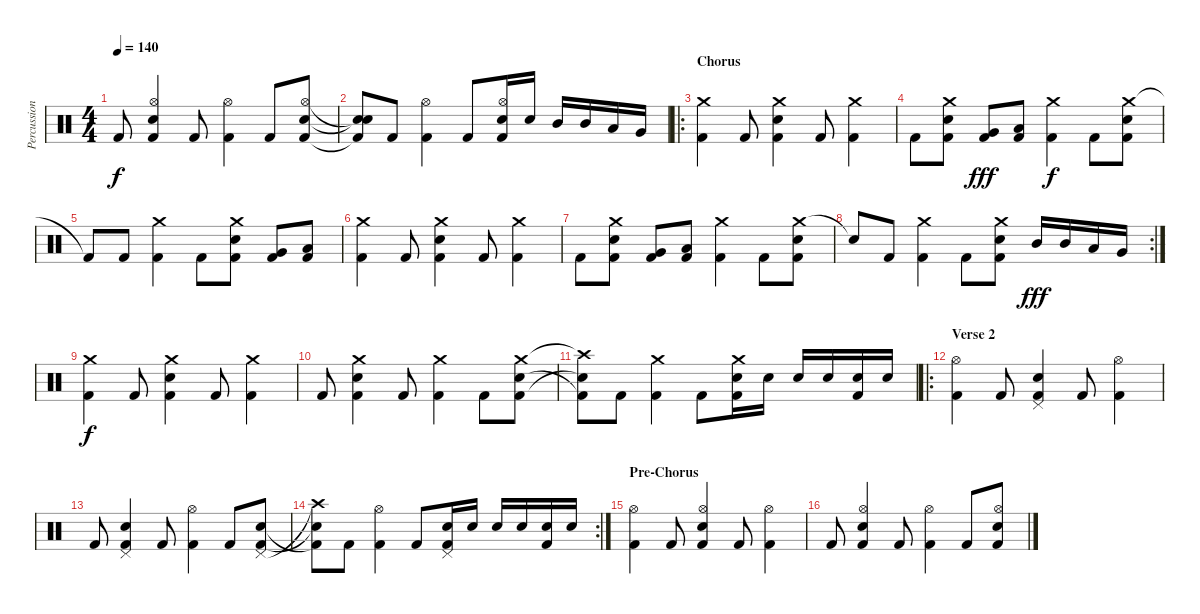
\track ("Percussion" "Percussion") {instrument percussion}
\staff {score}
\articulation defaults
\ts (4 4)
\tempo 140
\clef neutral
\ks c "Kick (hit) 2".8{dy f}
("Hi-Hat (open)" "Electric Snare (hit)" "Kick (hit) 2").4 "Kick (hit) 2".8 ("Hi-Hat (open)" "Kick (hit) 2").4 "Kick (hit) 2".8 ("Electric Snare (hit)" "Hi-Hat (open)" "Kick (hit) 2").8 |
("Snare (hit)"{t} "Snare (hit)"{t} "Kick (hit) 2"{t}).8 "Kick (hit) 2".8 ("Hi-Hat (open)" "Kick (hit) 2").4 "Kick (hit) 2".8 ("Hi-Hat (open)" "Electric Snare (hit)" "Kick (hit) 2").16 "Electric Snare (hit)".16 "Mid Tom (hit)".16 "Mid Tom (hit)".16 "Low Tom (hit)".16 "Very Low Tom (hit)".16 |
\ro
\section ("" "Chorus")
("Crash medium (hit)" "Kick (hit) 2").4 "Kick (hit) 2".8 ("Crash medium (hit)" "Electric Snare (hit)" "Kick (hit) 2").4 "Kick (hit) 2".8 ("Crash medium (hit)" "Kick (hit) 2").4 |
"Kick (hit) 2".8 ("Crash medium (hit)" "Electric Snare (hit)" "Kick (hit) 2").8 ("Very Low Tom (hit)" "Kick (hit) 2").8{dy fff} ("Low Floor Tom (hit)" "Kick (hit) 2").8 ("Crash medium (hit)" "Kick (hit) 2").4{dy f} "Kick (hit) 2".8 ("Crash medium (hit)" "Electric Snare (hit)" "Kick (hit) 2").8 |
"Kick (hit) 2"{t}.8 "Kick (hit) 2".8 ("Crash medium (hit)" "Kick (hit) 2").4 "Kick (hit) 2".8 ("Crash medium (hit)" "Electric Snare (hit)" "Kick (hit) 2").8 ("Very Low Tom (hit)" "Kick (hit) 2").8 ("Low Floor Tom (hit)" "Kick (hit) 2").8 |
("Crash medium (hit)" "Kick (hit) 2").4 "Kick (hit) 2".8 ("Crash medium (hit)" "Electric Snare (hit)" "Kick (hit) 2").4 "Kick (hit) 2".8 ("Crash medium (hit)" "Kick (hit) 2").4 |
"Kick (hit) 2".8 ("Crash medium (hit)" "Electric Snare (hit)" "Kick (hit) 2").8 ("Very Low Tom (hit)" "Kick (hit) 2").8 ("Low Floor Tom (hit)" "Kick (hit) 2").8 ("Crash medium (hit)" "Kick (hit) 2").4 "Kick (hit) 2".8 ("Crash medium (hit)" "Electric Snare (hit)" "Kick (hit) 2").8 |
\rc 2 "Snare (hit)"{t}.8 "Kick (hit) 2".8
("Crash medium (hit)" "Kick (hit) 2").4 "Kick (hit) 2".8 ("Crash medium (hit)" "Electric Snare (hit)" "Kick (hit) 2").8 "Mid Tom (hit)".16{dy fff} "Mid Tom (hit)".16 "Low Tom (hit)".16 "Very Low Tom (hit)".16 |
("Crash medium (hit)" "Kick (hit) 2").4{dy f} "Kick (hit) 2".8 ("Crash medium (hit)" "Electric Snare (hit)" "Kick (hit) 2").4 "Kick (hit) 2".8 ("Crash medium (hit)" "Kick (hit) 2").4 |
"Kick (hit) 2".8 ("Electric Snare (hit)" "Crash medium (hit)" "Kick (hit) 2").4 "Kick (hit) 2".8 ("Crash medium (hit)" "Kick (hit) 2").4 "Kick (hit) 2".8 ("Crash medium (hit)" "Electric Snare (hit)" "Kick (hit) 2").8 |
("Crash high (hit)"{t} "Kick (hit) 2"{t} "Snare (hit)"{t}).8 "Kick (hit) 2".8 ("Crash medium (hit)" "Kick (hit) 2").4 "Kick (hit) 2".8 ("Electric Snare (hit)" "Crash medium (hit)" "Kick (hit) 2").16 "Electric Snare (hit)".16 "Electric Snare (hit)".16 "Electric Snare (hit)".16 ("Electric Snare (hit)" "Kick (hit) 2").16 "Electric Snare (hit)".16 |
\ro
\section ("" "Verse 2")
("Hi-Hat (open)" "Kick (hit) 2").4 "Kick (hit) 2".8 ("Pedal Hi-Hat (hit)" "Electric Snare (hit)" "Kick (hit) 2").4 "Kick (hit) 2".8 ("Hi-Hat (open)" "Kick (hit) 2").4 |
"Kick (hit) 2".8 ("Electric Snare (hit)" "Pedal Hi-Hat (hit)" "Kick (hit) 2").4 "Kick (hit) 2".8 ("Hi-Hat (open)" "Kick (hit) 2").4 "Kick (hit) 2".8 ("Pedal Hi-Hat (hit)" "Electric Snare (hit)" "Kick (hit) 2").8 |
\rc 2
("Crash high (hit)"{t} "Kick (hit) 2"{t} "Snare (hit)"{t}).8 "Kick (hit) 2".8 ("Hi-Hat (open)" "Kick (hit) 2").4 "Kick (hit) 2".8 ("Electric Snare (hit)" "Pedal Hi-Hat (hit)" "Kick (hit) 2").16 "Electric Snare (hit)".16 "Electric Snare (hit)".16 "Electric Snare (hit)".16 ("Electric Snare (hit)" "Kick (hit) 2").16 "Electric Snare (hit)".16 |
\section ("" "Pre-Chorus")
("Hi-Hat (open)" "Kick (hit) 2").4 "Kick (hit) 2".8 ("Hi-Hat (open)" "Electric Snare (hit)" "Kick (hit) 2").4 "Kick (hit) 2".8 ("Hi-Hat (open)" "Kick (hit) 2").4 |
"Kick (hit) 2".8 ("Electric Snare (hit)" "Hi-Hat (open)" "Kick (hit) 2").4 "Kick (hit) 2".8 ("Hi-Hat (open)" "Kick (hit) 2").4 "Kick (hit) 2".8 ("Hi-Hat (open)" "Electric Snare (hit)" "Kick (hit) 2").8
